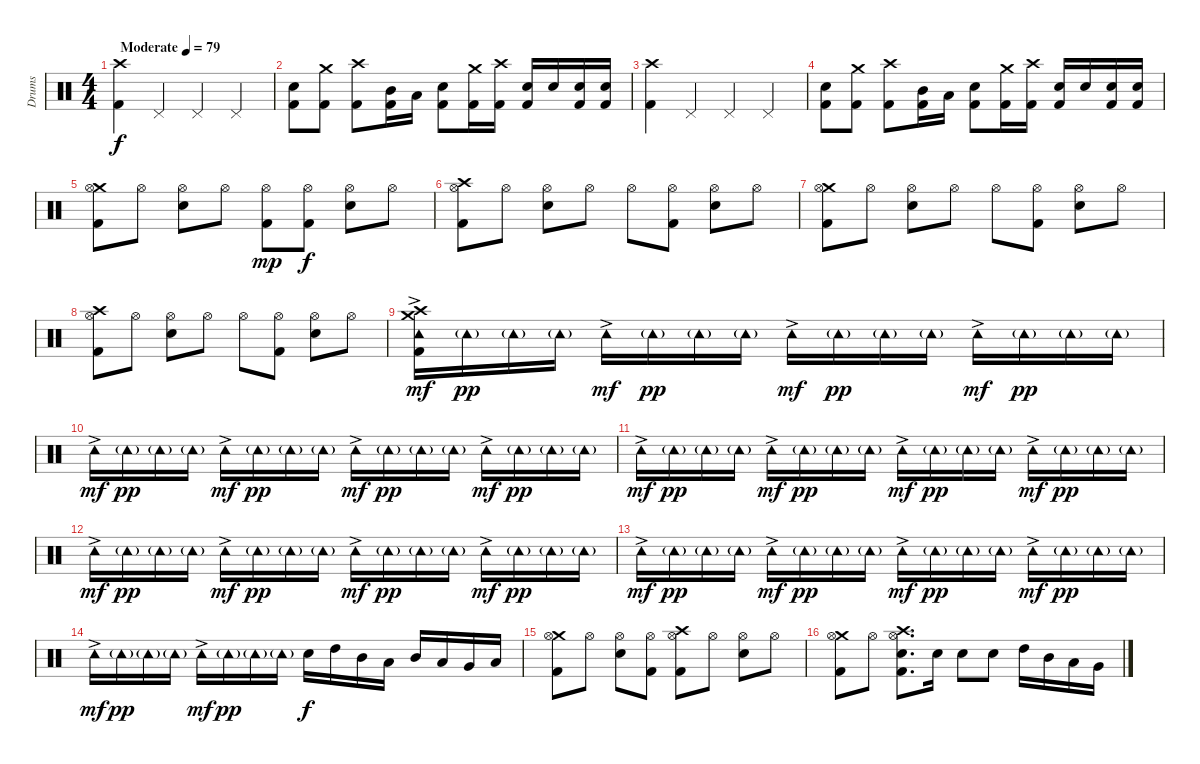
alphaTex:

\track ("Drums" "Drums") {instrument percussion}
\staff {score}
\articulation defaults
\ts (4 4)
\tempo (79 "Moderate")
\clef neutral
\ks c
("Crash high (hit)" "Kick (hit) 2").4{dy f} "Pedal Hi-Hat (hit)".4 "Pedal Hi-Hat (hit)".4 "Pedal Hi-Hat (hit)".4 |
("Electric Snare (hit)" "Kick (hit) 2").8 ("Crash medium (hit)" "Kick (hit) 2").8 ("Crash high (hit)" "Kick (hit) 2").8 ("Mid Tom (hit)" "Kick (hit) 2").16 "Low Tom (hit)".16 ("Electric Snare (hit)" "Kick (hit) 2").8 ("Crash medium (hit)" "Kick (hit) 2").16 ("Crash high (hit)" "Kick (hit) 2").16 ("Electric Snare (hit)" "Kick (hit) 2").16 "Electric Snare (hit)".16 ("Electric Snare (hit)" "Kick (hit) 2").16 ("Electric Snare (hit)" "Kick (hit) 2").16 |
("Crash high (hit)" "Kick (hit) 2").4 "Pedal Hi-Hat (hit)".4 "Pedal Hi-Hat (hit)".4 "Pedal Hi-Hat (hit)".4 |
("Electric Snare (hit)" "Kick (hit) 2").8 ("Crash medium (hit)" "Kick (hit) 2").8 ("Crash high (hit)" "Kick (hit) 2").8 ("Mid Tom (hit)" "Kick (hit) 2").16 "Low Tom (hit)".16 ("Electric Snare (hit)" "Kick (hit) 2").8 ("Crash medium (hit)" "Kick (hit) 2").16 ("Crash high (hit)" "Kick (hit) 2").16 ("Electric Snare (hit)" "Kick (hit) 2").16 "Electric Snare (hit)".16 ("Electric Snare (hit)" "Kick (hit) 2").16 ("Electric Snare (hit)" "Kick (hit) 2").16 |
("Crash medium (hit)" "Hi-Hat (open)" "Kick (hit) 2").8 "Hi-Hat (open)".8 ("Hi-Hat (open)" "Electric Snare (hit)").8 "Hi-Hat (open)".8 ("Hi-Hat (open)" "Kick (hit) 2").8{dy mp} ("Hi-Hat (open)" "Kick (hit) 2").8{dy f} ("Hi-Hat (open)" "Electric Snare (hit)").8 "Hi-Hat (open)".8 |
("Crash high (hit)" "Hi-Hat (open)" "Kick (hit) 2").8 "Hi-Hat (open)".8 ("Hi-Hat (open)" "Electric Snare (hit)").8 "Hi-Hat (open)".8 "Hi-Hat (open)".8 ("Hi-Hat (open)" "Kick (hit) 2").8 ("Hi-Hat (open)" "Electric Snare (hit)").8 "Hi-Hat (open)".8 |
("Crash medium (hit)" "Hi-Hat (open)" "Kick (hit) 2").8 "Hi-Hat (open)".8 ("Hi-Hat (open)" "Electric Snare (hit)").8 "Hi-Hat (open)".8 "Hi-Hat (open)".8 ("Hi-Hat (open)" "Kick (hit) 2").8 ("Hi-Hat (open)" "Electric Snare (hit)").8 "Hi-Hat (open)".8 |
("Crash high (hit)" "Hi-Hat (open)" "Kick (hit) 2").8 "Hi-Hat (open)".8 ("Hi-Hat (open)" "Electric Snare (hit)").8 "Hi-Hat (open)".8 "Hi-Hat (open)".8 ("Hi-Hat (open)" "Kick (hit) 2").8 ("Hi-Hat (open)" "Electric Snare (hit)").8 "Hi-Hat (open)".8 |
("Crash medium (hit)" "Crash high (hit)" "Tambourine (hit)"{ac} "Kick (hit) 2").16{dy mf} "Tambourine (hit)"{g}.16{dy pp} "Tambourine (hit)"{g}.16 "Tambourine (hit)"{g}.16 "Tambourine (hit)"{ac}.16{dy mf} "Tambourine (hit)"{g}.16{dy pp} "Tambourine (hit)"{g}.16 "Tambourine (hit)"{g}.16 "Tambourine (hit)"{ac}.16{dy mf} "Tambourine (hit)"{g}.16{dy pp} "Tambourine (hit)"{g}.16 "Tambourine (hit)"{g}.16 "Tambourine (hit)"{ac}.16{dy mf} "Tambourine (hit)"{g}.16{dy pp} "Tambourine (hit)"{g}.16 "Tambourine (hit)"{g}.16 |
"Tambourine (hit)"{ac}.16{dy mf} "Tambourine (hit)"{g}.16{dy pp} "Tambourine (hit)"{g}.16 "Tambourine (hit)"{g}.16 "Tambourine (hit)"{ac}.16{dy mf} "Tambourine (hit)"{g}.16{dy pp} "Tambourine (hit)"{g}.16 "Tambourine (hit)"{g}.16 "Tambourine (hit)"{ac}.16{dy mf} "Tambourine (hit)"{g}.16{dy pp} "Tambourine (hit)"{g}.16 "Tambourine (hit)"{g}.16 "Tambourine (hit)"{ac}.16{dy mf} "Tambourine (hit)"{g}.16{dy pp} "Tambourine (hit)"{g}.16 "Tambourine (hit)"{g}.16 |
"Tambourine (hit)"{ac}.16{dy mf} "Tambourine (hit)"{g}.16{dy pp} "Tambourine (hit)"{g}.16 "Tambourine (hit)"{g}.16 "Tambourine (hit)"{ac}.16{dy mf} "Tambourine (hit)"{g}.16{dy pp} "Tambourine (hit)"{g}.16 "Tambourine (hit)"{g}.16 "Tambourine (hit)"{ac}.16{dy mf} "Tambourine (hit)"{g}.16{dy pp} "Tambourine (hit)"{g}.16 "Tambourine (hit)"{g}.16 "Tambourine (hit)"{ac}.16{dy mf} "Tambourine (hit)"{g}.16{dy pp} "Tambourine (hit)"{g}.16 "Tambourine (hit)"{g}.16 |
"Tambourine (hit)"{ac}.16{dy mf} "Tambourine (hit)"{g}.16{dy pp} "Tambourine (hit)"{g}.16 "Tambourine (hit)"{g}.16 "Tambourine (hit)"{ac}.16{dy mf} "Tambourine (hit)"{g}.16{dy pp} "Tambourine (hit)"{g}.16 "Tambourine (hit)"{g}.16 "Tambourine (hit)"{ac}.16{dy mf} "Tambourine (hit)"{g}.16{dy pp} "Tambourine (hit)"{g}.16 "Tambourine (hit)"{g}.16 "Tambourine (hit)"{ac}.16{dy mf} "Tambourine (hit)"{g}.16{dy pp} "Tambourine (hit)"{g}.16 "Tambourine (hit)"{g}.16 |
"Tambourine (hit)"{ac}.16{dy mf} "Tambourine (hit)"{g}.16{dy pp} "Tambourine (hit)"{g}.16 "Tambourine (hit)"{g}.16 "Tambourine (hit)"{ac}.16{dy mf} "Tambourine (hit)"{g}.16{dy pp} "Tambourine (hit)"{g}.16 "Tambourine (hit)"{g}.16 "Tambourine (hit)"{ac}.16{dy mf} "Tambourine (hit)"{g}.16{dy pp} "Tambourine (hit)"{g}.16 "Tambourine (hit)"{g}.16 "Tambourine (hit)"{ac}.16{dy mf} "Tambourine (hit)"{g}.16{dy pp} "Tambourine (hit)"{g}.16 "Tambourine (hit)"{g}.16 |
"Tambourine (hit)"{ac}.16{dy mf} "Tambourine (hit)"{g}.16{dy pp} "Tambourine (hit)"{g}.16 "Tambourine (hit)"{g}.16 "Tambourine (hit)"{ac}.16{dy mf} "Tambourine (hit)"{g}.16{dy pp} "Tambourine (hit)"{g}.16 "Tambourine (hit)"{g}.16 "Electric Snare (hit)".16{dy f} "High Tom (hit)".16 "Mid Tom (hit)".16 "Low Tom (hit)".16 "Mid Tom (hit)".16 "Low Tom (hit)".16 "Very Low Tom (hit)".16 "Low Floor Tom (hit)".16 |
("Crash medium (hit)" "Hi-Hat (open)" "Kick (hit) 2").8 "Hi-Hat (open)".8 ("Hi-Hat (open)" "Electric Snare (hit)").8 ("Hi-Hat (open)" "Kick (hit) 2").8 ("Crash high (hit)" "Hi-Hat (open)" "Kick (hit) 2").8 "Hi-Hat (open)".8 ("Hi-Hat (open)" "Electric Snare (hit)").8 "Hi-Hat (open)".8 |
("Crash medium (hit)" "Hi-Hat (open)" "Kick (hit) 2").8 "Hi-Hat (open)".8 ("Crash high (hit)" "Hi-Hat (open)" "Electric Snare (hit)" "Kick (hit) 2").8{d} "Electric Snare (hit)".16 "Electric Snare (hit)".8 "Electric Snare (hit)".8 "High Tom (hit)".16 "Mid Tom (hit)".16 "Low Tom (hit)".16 "Very Low Tom (hit)".16
